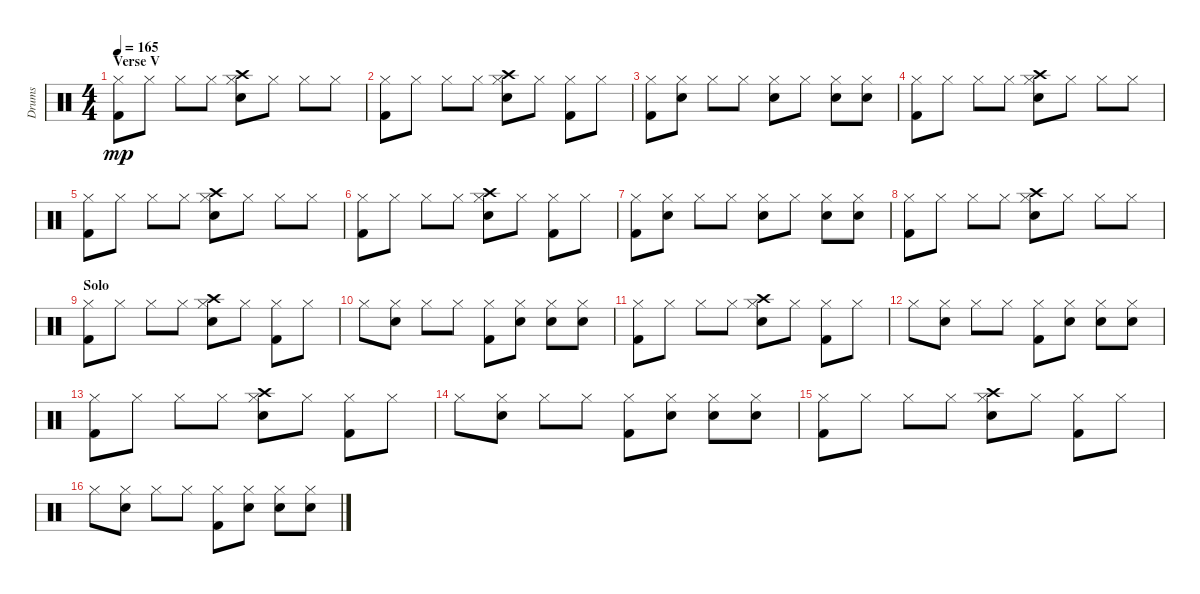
\track ("Drums" "Drums") {instrument percussion}
\staff {score}
\articulation defaults
\ts (4 4)
\section ("" "Verse V")
\tempo 165
\clef neutral
\ks c
("Hi-Hat (closed)" "Kick (hit) 2").8{dy mp} "Hi-Hat (closed)".8 "Hi-Hat (closed)".8 "Hi-Hat (closed)".8 ("Hi-Hat (closed)" "Snare (hit) 2" "Crash high (hit)").8 "Hi-Hat (closed)".8 "Hi-Hat (closed)".8 "Hi-Hat (closed)".8 |
("Hi-Hat (closed)" "Kick (hit) 2").8 "Hi-Hat (closed)".8 "Hi-Hat (closed)".8 "Hi-Hat (closed)".8 ("Hi-Hat (closed)" "Snare (hit) 2" "Crash high (hit)").8 "Hi-Hat (closed)".8 ("Hi-Hat (closed)" "Kick (hit) 2").8 "Hi-Hat (closed)".8 |
("Hi-Hat (closed)" "Kick (hit) 2").8 ("Hi-Hat (closed)" "Snare (hit) 2").8 "Hi-Hat (closed)".8 "Hi-Hat (closed)".8 ("Hi-Hat (closed)" "Snare (hit) 2").8 "Hi-Hat (closed)".8 ("Hi-Hat (closed)" "Electric Snare (hit)").8 ("Hi-Hat (closed)" "Electric Snare (hit)").8 |
("Hi-Hat (closed)" "Kick (hit) 2").8 "Hi-Hat (closed)".8 "Hi-Hat (closed)".8 "Hi-Hat (closed)".8 ("Hi-Hat (closed)" "Snare (hit) 2" "Crash high (hit)").8 "Hi-Hat (closed)".8 "Hi-Hat (closed)".8 "Hi-Hat (closed)".8 |
("Hi-Hat (closed)" "Kick (hit) 2").8 "Hi-Hat (closed)".8 "Hi-Hat (closed)".8 "Hi-Hat (closed)".8 ("Hi-Hat (closed)" "Snare (hit) 2" "Crash high (hit)").8 "Hi-Hat (closed)".8 "Hi-Hat (closed)".8 "Hi-Hat (closed)".8 |
("Hi-Hat (closed)" "Kick (hit) 2").8 "Hi-Hat (closed)".8 "Hi-Hat (closed)".8 "Hi-Hat (closed)".8 ("Hi-Hat (closed)" "Snare (hit) 2" "Crash high (hit)").8 "Hi-Hat (closed)".8 ("Hi-Hat (closed)" "Kick (hit) 2").8 "Hi-Hat (closed)".8 |
("Hi-Hat (closed)" "Kick (hit) 2").8 ("Hi-Hat (closed)" "Snare (hit) 2").8 "Hi-Hat (closed)".8 "Hi-Hat (closed)".8 ("Hi-Hat (closed)" "Snare (hit) 2").8 "Hi-Hat (closed)".8 ("Hi-Hat (closed)" "Electric Snare (hit)").8 ("Hi-Hat (closed)" "Electric Snare (hit)").8 |
("Hi-Hat (closed)" "Kick (hit) 2").8 "Hi-Hat (closed)".8 "Hi-Hat (closed)".8 "Hi-Hat (closed)".8 ("Hi-Hat (closed)" "Snare (hit) 2" "Crash high (hit)").8 "Hi-Hat (closed)".8 "Hi-Hat (closed)".8 "Hi-Hat (closed)".8 |
\section ("" "Solo")
("Hi-Hat (closed)" "Kick (hit) 2").8 "Hi-Hat (closed)".8 "Hi-Hat (closed)".8 "Hi-Hat (closed)".8 ("Hi-Hat (closed)" "Snare (hit) 2" "Crash high (hit)").8 "Hi-Hat (closed)".8 ("Hi-Hat (closed)" "Kick (hit) 2").8 "Hi-Hat (closed)".8 |
"Hi-Hat (closed)".8 ("Hi-Hat (closed)" "Snare (hit) 2").8 "Hi-Hat (closed)".8 "Hi-Hat (closed)".8 ("Hi-Hat (closed)" "Kick (hit) 2").8 ("Hi-Hat (closed)" "Electric Snare (hit)").8 ("Hi-Hat (closed)" "Electric Snare (hit)").8 ("Hi-Hat (closed)" "Snare (hit) 2").8 |
("Hi-Hat (closed)" "Kick (hit) 2").8 "Hi-Hat (closed)".8 "Hi-Hat (closed)".8 "Hi-Hat (closed)".8 ("Hi-Hat (closed)" "Snare (hit) 2" "Crash high (hit)").8 "Hi-Hat (closed)".8 ("Hi-Hat (closed)" "Kick (hit) 2").8 "Hi-Hat (closed)".8 |
"Hi-Hat (closed)".8 ("Hi-Hat (closed)" "Snare (hit) 2").8 "Hi-Hat (closed)".8 "Hi-Hat (closed)".8 ("Hi-Hat (closed)" "Kick (hit) 2").8 ("Hi-Hat (closed)" "Electric Snare (hit)").8 ("Hi-Hat (closed)" "Electric Snare (hit)").8 ("Hi-Hat (closed)" "Snare (hit) 2").8 |
("Hi-Hat (closed)" "Kick (hit) 2").8 "Hi-Hat (closed)".8 "Hi-Hat (closed)".8 "Hi-Hat (closed)".8 ("Hi-Hat (closed)" "Snare (hit) 2" "Crash high (hit)").8 "Hi-Hat (closed)".8 ("Hi-Hat (closed)" "Kick (hit) 2").8 "Hi-Hat (closed)".8 |
"Hi-Hat (closed)".8 ("Hi-Hat (closed)" "Snare (hit) 2").8 "Hi-Hat (closed)".8 "Hi-Hat (closed)".8 ("Hi-Hat (closed)" "Kick (hit) 2").8 ("Hi-Hat (closed)" "Electric Snare (hit)").8 ("Hi-Hat (closed)" "Electric Snare (hit)").8 ("Hi-Hat (closed)" "Snare (hit) 2").8 |
("Hi-Hat (closed)" "Kick (hit) 2").8 "Hi-Hat (closed)".8 "Hi-Hat (closed)".8 "Hi-Hat (closed)".8 ("Hi-Hat (closed)" "Snare (hit) 2" "Crash high (hit)").8 "Hi-Hat (closed)".8 ("Hi-Hat (closed)" "Kick (hit) 2").8 "Hi-Hat (closed)".8 |
"Hi-Hat (closed)".8 ("Hi-Hat (closed)" "Snare (hit) 2").8 "Hi-Hat (closed)".8 "Hi-Hat (closed)".8 ("Hi-Hat (closed)" "Kick (hit) 2").8 ("Hi-Hat (closed)" "Electric Snare (hit)").8 ("Hi-Hat (closed)" "Electric Snare (hit)").8 ("Hi-Hat (closed)" "Snare (hit) 2").8
